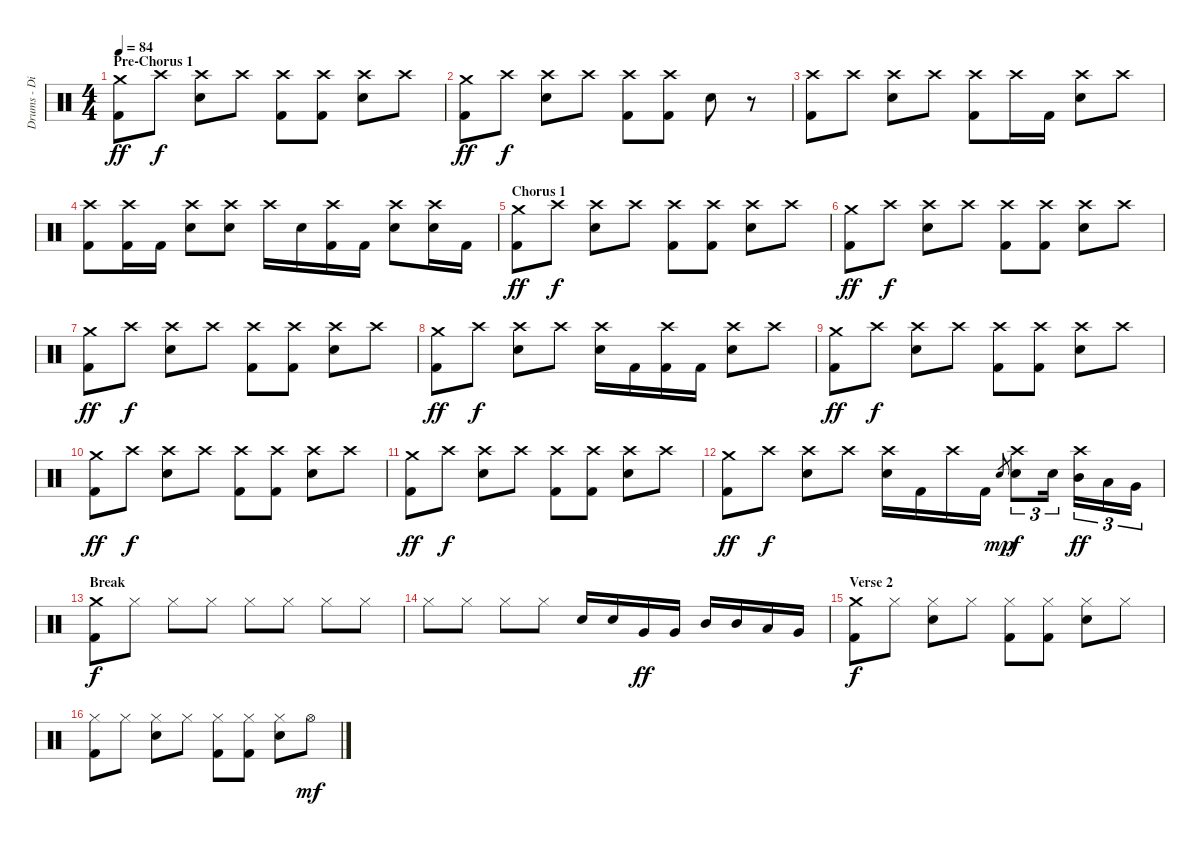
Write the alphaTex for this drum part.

\track ("Drums - Dino Campanella" "Drums - Di") {instrument percussion}
\staff {score}
\articulation defaults
\ts (4 4)
\section ("" "Pre-Chorus 1")
\tempo 84
\clef neutral
\ks c
("Crash medium (hit)" "Kick (hit) 2").8{dy ff} "Crash high (hit)".8{dy f} ("Crash high (hit)" "Electric Snare (hit)").8 "Crash high (hit)".8 ("Crash high (hit)" "Kick (hit) 2").8 ("Crash high (hit)" "Kick (hit) 2").8 ("Crash high (hit)" "Electric Snare (hit)").8 "Crash high (hit)".8 |
("Crash medium (hit)" "Kick (hit) 2").8{dy ff} "Crash high (hit)".8{dy f} ("Crash high (hit)" "Electric Snare (hit)").8 "Crash high (hit)".8 ("Crash high (hit)" "Kick (hit) 2").8 ("Crash high (hit)" "Kick (hit) 2").8 "Electric Snare (hit)".8 r.8 |
("Crash high (hit)" "Kick (hit) 2").8 "Crash high (hit)".8 ("Crash high (hit)" "Electric Snare (hit)").8 "Crash high (hit)".8 ("Crash high (hit)" "Kick (hit) 2").8 "Crash high (hit)".16 "Kick (hit) 2".16 ("Crash high (hit)" "Electric Snare (hit)").8 "Crash high (hit)".8 |
("Crash high (hit)" "Kick (hit) 2").8 ("Crash high (hit)" "Kick (hit) 2").16 "Kick (hit) 2".16 ("Crash high (hit)" "Electric Snare (hit)").8 ("Crash high (hit)" "Electric Snare (hit)").8 "Crash high (hit)".16 "Electric Snare (hit)".16 ("Crash high (hit)" "Kick (hit) 2").16 "Kick (hit) 2".16 ("Crash high (hit)" "Electric Snare (hit)").8 ("Crash high (hit)" "Electric Snare (hit)").16 "Kick (hit) 2".16 |
\section ("" "Chorus 1")
("Crash medium (hit)" "Kick (hit) 2").8{dy ff} "Crash high (hit)".8{dy f} ("Crash high (hit)" "Electric Snare (hit)").8 "Crash high (hit)".8 ("Crash high (hit)" "Kick (hit) 2").8 ("Crash high (hit)" "Kick (hit) 2").8 ("Crash high (hit)" "Electric Snare (hit)").8 "Crash high (hit)".8 |
("Crash medium (hit)" "Kick (hit) 2").8{dy ff} "Crash high (hit)".8{dy f} ("Crash high (hit)" "Electric Snare (hit)").8 "Crash high (hit)".8 ("Crash high (hit)" "Kick (hit) 2").8 ("Crash high (hit)" "Kick (hit) 2").8 ("Crash high (hit)" "Electric Snare (hit)").8 "Crash high (hit)".8 |
("Crash medium (hit)" "Kick (hit) 2").8{dy ff} "Crash high (hit)".8{dy f} ("Crash high (hit)" "Electric Snare (hit)").8 "Crash high (hit)".8 ("Crash high (hit)" "Kick (hit) 2").8 ("Crash high (hit)" "Kick (hit) 2").8 ("Crash high (hit)" "Electric Snare (hit)").8 "Crash high (hit)".8 |
("Crash medium (hit)" "Kick (hit) 2").8{dy ff} "Crash high (hit)".8{dy f} ("Crash high (hit)" "Electric Snare (hit)").8 "Crash high (hit)".8 ("Crash high (hit)" "Electric Snare (hit)").16 "Kick (hit) 2".16 ("Crash high (hit)" "Kick (hit) 2").16 "Kick (hit) 2".16 ("Crash high (hit)" "Electric Snare (hit)").8 "Crash high (hit)".8 |
("Crash medium (hit)" "Kick (hit) 2").8{dy ff} "Crash high (hit)".8{dy f} ("Crash high (hit)" "Electric Snare (hit)").8 "Crash high (hit)".8 ("Crash high (hit)" "Kick (hit) 2").8 ("Crash high (hit)" "Kick (hit) 2").8 ("Crash high (hit)" "Electric Snare (hit)").8 "Crash high (hit)".8 |
("Crash medium (hit)" "Kick (hit) 2").8{dy ff} "Crash high (hit)".8{dy f} ("Crash high (hit)" "Electric Snare (hit)").8 "Crash high (hit)".8 ("Crash high (hit)" "Kick (hit) 2").8 ("Crash high (hit)" "Kick (hit) 2").8 ("Crash high (hit)" "Electric Snare (hit)").8 "Crash high (hit)".8 |
("Crash medium (hit)" "Kick (hit) 2").8{dy ff} "Crash high (hit)".8{dy f} ("Crash high (hit)" "Electric Snare (hit)").8 "Crash high (hit)".8 ("Crash high (hit)" "Kick (hit) 2").8 ("Crash high (hit)" "Kick (hit) 2").8 ("Crash high (hit)" "Electric Snare (hit)").8 "Crash high (hit)".8 |
("Crash medium (hit)" "Kick (hit) 2").8{dy ff} "Crash high (hit)".8{dy f} ("Crash high (hit)" "Electric Snare (hit)").8 "Crash high (hit)".8 ("Crash high (hit)" "Electric Snare (hit)").16 "Kick (hit) 2".16 "Crash high (hit)".16 "Kick (hit) 2".16 "Electric Snare (hit)".8{gr dy mp} ("Crash high (hit)" "Electric Snare (hit)").8{tu (3 2) dy f} "Electric Snare (hit)".16{tu (3 2)} ("Crash high (hit)" "Mid Tom (hit)").16{tu (3 2) dy ff} "Low Tom (hit)".16{tu (3 2)} "Very Low Tom (hit)".16{tu (3 2)} |
\section ("" "Break")
("Crash medium (hit)" "Kick (hit) 2").8{dy f} "Hi-Hat (closed)".8 "Hi-Hat (closed)".8 "Hi-Hat (closed)".8 "Hi-Hat (closed)".8 "Hi-Hat (closed)".8 "Hi-Hat (closed)".8 "Hi-Hat (closed)".8 |
"Hi-Hat (closed)".8 "Hi-Hat (closed)".8 "Hi-Hat (closed)".8 "Hi-Hat (closed)".8 "Electric Snare (hit)".16 "Electric Snare (hit)".16 "Very Low Tom (hit)".16{dy ff} "Very Low Tom (hit)".16 "Mid Tom (hit)".16 "Mid Tom (hit)".16 "Low Tom (hit)".16 "Very Low Tom (hit)".16 |
\section ("" "Verse 2")
("Crash medium (hit)" "Kick (hit) 2").8{dy f} "Hi-Hat (closed)".8 ("Hi-Hat (closed)" "Electric Snare (hit)").8 "Hi-Hat (closed)".8 ("Hi-Hat (closed)" "Kick (hit) 2").8 ("Hi-Hat (closed)" "Kick (hit) 2").8 ("Hi-Hat (closed)" "Electric Snare (hit)").8 "Hi-Hat (closed)".8 |
("Hi-Hat (closed)" "Kick (hit) 2").8 "Hi-Hat (closed)".8 ("Hi-Hat (closed)" "Electric Snare (hit)").8 "Hi-Hat (closed)".8 ("Hi-Hat (closed)" "Kick (hit) 2").8 ("Hi-Hat (closed)" "Kick (hit) 2").8 ("Hi-Hat (closed)" "Electric Snare (hit)").8 "Hi-Hat (open)".8{dy mf}
